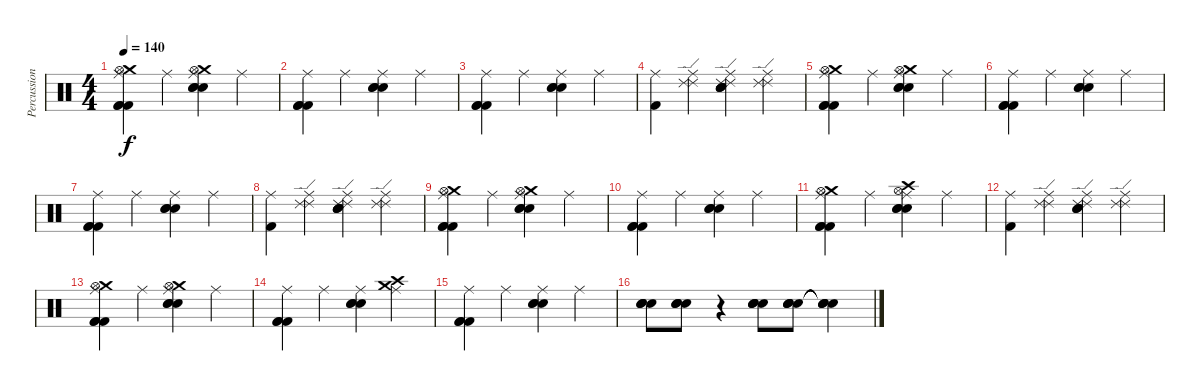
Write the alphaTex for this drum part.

\track ("Percussion" "Percussion") {instrument percussion}
\staff {score}
\articulation defaults
\ts (4 4)
\tempo 140
\clef neutral
\ks c
("Ride (middle)" "Kick (hit) 2" "Kick (hit) 2" "Kick (hit) 2" "Crash medium (hit)" "Hi-Hat (open)").4{dy f} "Ride (middle)".4 ("Ride (middle)" "Electric Snare (hit)" "Electric Snare (hit)" "Electric Snare (hit)" "Crash medium (hit)" "Hi-Hat (open)").4 "Ride (middle)".4 |
("Ride (middle)" "Kick (hit) 2" "Kick (hit) 2" "Kick (hit) 2").4 "Ride (middle)".4 ("Ride (middle)" "Electric Snare (hit)" "Electric Snare (hit)" "Electric Snare (hit)").4 "Ride (middle)".4 |
("Ride (middle)" "Kick (hit) 2" "Kick (hit) 2" "Kick (hit) 2").4 "Ride (middle)".4 ("Ride (middle)" "Electric Snare (hit)" "Electric Snare (hit)" "Electric Snare (hit)").4 "Ride (middle)".4 |
("Ride (middle)" "Kick (hit) 2").4 ("Ride (middle)" "Ride (edge) 2" "Ride (edge) 2").4 ("Ride (middle)" "Electric Snare (hit)" "Electric Snare (hit)" "Electric Snare (hit)" "Ride (edge) 2" "Ride (edge) 2").4 ("Ride (middle)" "Ride (edge) 2" "Ride (edge) 2").4 |
("Ride (middle)" "Kick (hit) 2" "Kick (hit) 2" "Kick (hit) 2" "Crash medium (hit)" "Hi-Hat (open)").4 "Ride (middle)".4 ("Ride (middle)" "Electric Snare (hit)" "Electric Snare (hit)" "Electric Snare (hit)" "Crash medium (hit)" "Hi-Hat (open)").4 "Ride (middle)".4 |
("Ride (middle)" "Kick (hit) 2" "Kick (hit) 2" "Kick (hit) 2").4 "Ride (middle)".4 ("Ride (middle)" "Electric Snare (hit)" "Electric Snare (hit)" "Electric Snare (hit)").4 "Ride (middle)".4 |
("Ride (middle)" "Kick (hit) 2" "Kick (hit) 2" "Kick (hit) 2").4 "Ride (middle)".4 ("Ride (middle)" "Electric Snare (hit)" "Electric Snare (hit)" "Electric Snare (hit)").4 "Ride (middle)".4 |
("Ride (middle)" "Kick (hit) 2").4 ("Ride (middle)" "Ride (edge) 2" "Ride (edge) 2").4 ("Ride (middle)" "Electric Snare (hit)" "Electric Snare (hit)" "Electric Snare (hit)" "Ride (edge) 2" "Ride (edge) 2").4 ("Ride (middle)" "Ride (edge) 2" "Ride (edge) 2").4 |
("Ride (middle)" "Kick (hit) 2" "Kick (hit) 2" "Kick (hit) 2" "Crash medium (hit)" "Hi-Hat (open)").4 "Ride (middle)".4 ("Ride (middle)" "Electric Snare (hit)" "Electric Snare (hit)" "Electric Snare (hit)" "Crash medium (hit)" "Hi-Hat (open)").4 "Ride (middle)".4 |
("Ride (middle)" "Kick (hit) 2" "Kick (hit) 2" "Kick (hit) 2").4 "Ride (middle)".4 ("Ride (middle)" "Electric Snare (hit)" "Electric Snare (hit)" "Electric Snare (hit)").4 "Ride (middle)".4 |
("Ride (middle)" "Kick (hit) 2" "Kick (hit) 2" "Kick (hit) 2" "Crash medium (hit)" "Hi-Hat (open)").4 "Ride (middle)".4 ("Ride (middle)" "Electric Snare (hit)" "Electric Snare (hit)" "Electric Snare (hit)" "Crash high (hit)" "Hi-Hat (open)").4 "Ride (middle)".4 |
("Ride (middle)" "Kick (hit) 2").4 ("Ride (middle)" "Ride (edge) 2" "Ride (edge) 2").4 ("Ride (middle)" "Electric Snare (hit)" "Electric Snare (hit)" "Electric Snare (hit)" "Ride (edge) 2" "Ride (edge) 2").4 ("Ride (middle)" "Ride (edge) 2" "Ride (edge) 2").4 |
("Ride (middle)" "Kick (hit) 2" "Kick (hit) 2" "Kick (hit) 2" "Crash medium (hit)" "Hi-Hat (open)").4 "Ride (middle)".4 ("Ride (middle)" "Electric Snare (hit)" "Electric Snare (hit)" "Electric Snare (hit)" "Crash medium (hit)" "Hi-Hat (open)").4 "Ride (middle)".4 |
("Ride (middle)" "Kick (hit) 2" "Kick (hit) 2" "Kick (hit) 2").4 "Ride (middle)".4 ("Ride (middle)" "Electric Snare (hit)" "Electric Snare (hit)" "Electric Snare (hit)").4 ("Ride (middle)" "Crash medium (hit)" "Crash high (hit)").4 |
("Ride (middle)" "Kick (hit) 2" "Kick (hit) 2" "Kick (hit) 2").4 "Ride (middle)".4 ("Ride (middle)" "Electric Snare (hit)" "Electric Snare (hit)" "Electric Snare (hit)").4 "Ride (middle)".4 |
("Electric Snare (hit)" "Electric Snare (hit)" "Electric Snare (hit)" "Electric Snare (hit)").8 ("Electric Snare (hit)" "Electric Snare (hit)" "Electric Snare (hit)" "Electric Snare (hit)").8 r.4 ("Electric Snare (hit)" "Electric Snare (hit)" "Electric Snare (hit)" "Electric Snare (hit)").8 ("Electric Snare (hit)" "Electric Snare (hit)" "Electric Snare (hit)" "Electric Snare (hit)").8 ("Snare (hit)"{t} "Snare (hit)"{t} "Snare (hit)"{t} "Snare (hit)"{t}).4
